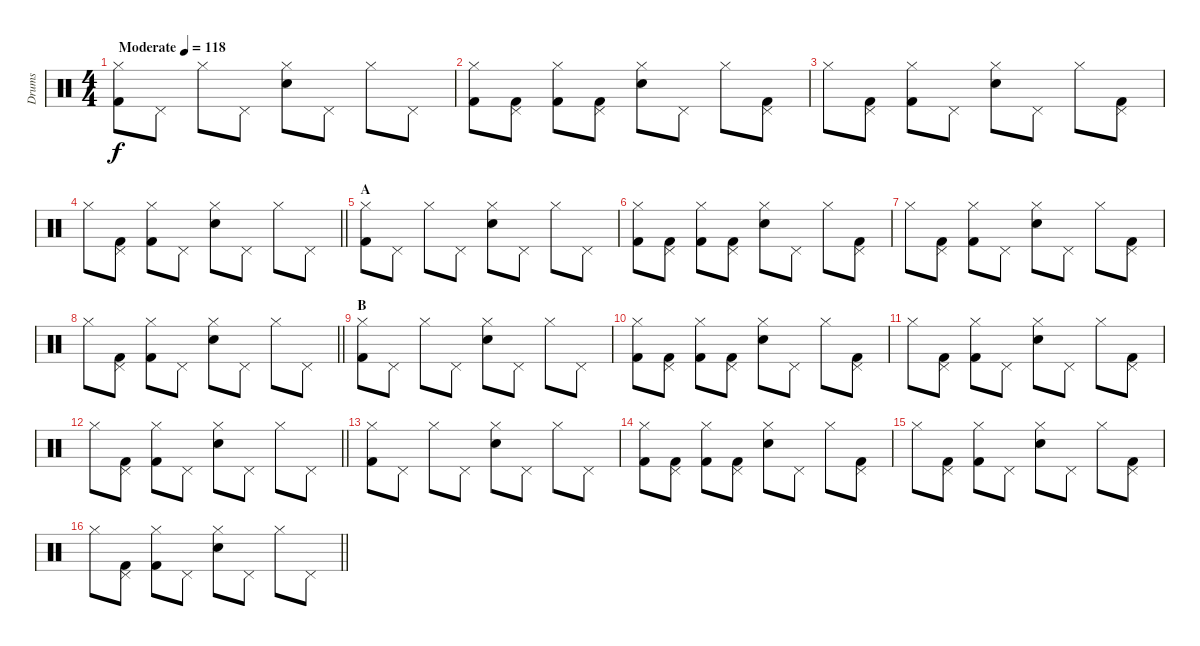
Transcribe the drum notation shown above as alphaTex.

\track ("Drums" "Drums") {instrument percussion}
\staff {score}
\articulation defaults
\ts (4 4)
\tempo (118 "Moderate")
\clef neutral
\ks c
("Hi-Hat (closed)" "Kick (hit) 2").8{dy f} "Pedal Hi-Hat (hit)".8 "Hi-Hat (closed)".8 "Pedal Hi-Hat (hit)".8 ("Hi-Hat (closed)" "Electric Snare (hit)").8 "Pedal Hi-Hat (hit)".8 "Hi-Hat (closed)".8 "Pedal Hi-Hat (hit)".8 |
("Hi-Hat (closed)" "Kick (hit) 2").8 ("Pedal Hi-Hat (hit)" "Kick (hit) 2").8 ("Hi-Hat (closed)" "Kick (hit) 2").8 ("Pedal Hi-Hat (hit)" "Kick (hit) 2").8 ("Hi-Hat (closed)" "Electric Snare (hit)").8 "Pedal Hi-Hat (hit)".8 "Hi-Hat (closed)".8 ("Pedal Hi-Hat (hit)" "Kick (hit) 2").8 |
"Hi-Hat (closed)".8 ("Pedal Hi-Hat (hit)" "Kick (hit) 2").8 ("Hi-Hat (closed)" "Kick (hit) 2").8 "Pedal Hi-Hat (hit)".8 ("Hi-Hat (closed)" "Electric Snare (hit)").8 "Pedal Hi-Hat (hit)".8 "Hi-Hat (closed)".8 ("Pedal Hi-Hat (hit)" "Kick (hit) 2").8 |
\barLineRight lightlight "Hi-Hat (closed)".8
("Pedal Hi-Hat (hit)" "Kick (hit) 2").8 ("Hi-Hat (closed)" "Kick (hit) 2").8 "Pedal Hi-Hat (hit)".8 ("Hi-Hat (closed)" "Electric Snare (hit)").8 "Pedal Hi-Hat (hit)".8 "Hi-Hat (closed)".8 "Pedal Hi-Hat (hit)".8 |
\section ("" "A")
("Hi-Hat (closed)" "Kick (hit) 2").8 "Pedal Hi-Hat (hit)".8 "Hi-Hat (closed)".8 "Pedal Hi-Hat (hit)".8 ("Hi-Hat (closed)" "Electric Snare (hit)").8 "Pedal Hi-Hat (hit)".8 "Hi-Hat (closed)".8 "Pedal Hi-Hat (hit)".8 |
("Hi-Hat (closed)" "Kick (hit) 2").8 ("Pedal Hi-Hat (hit)" "Kick (hit) 2").8 ("Hi-Hat (closed)" "Kick (hit) 2").8 ("Pedal Hi-Hat (hit)" "Kick (hit) 2").8 ("Hi-Hat (closed)" "Electric Snare (hit)").8 "Pedal Hi-Hat (hit)".8 "Hi-Hat (closed)".8 ("Pedal Hi-Hat (hit)" "Kick (hit) 2").8 |
"Hi-Hat (closed)".8 ("Pedal Hi-Hat (hit)" "Kick (hit) 2").8 ("Hi-Hat (closed)" "Kick (hit) 2").8 "Pedal Hi-Hat (hit)".8 ("Hi-Hat (closed)" "Electric Snare (hit)").8 "Pedal Hi-Hat (hit)".8 "Hi-Hat (closed)".8 ("Pedal Hi-Hat (hit)" "Kick (hit) 2").8 |
\barLineRight lightlight "Hi-Hat (closed)".8
("Pedal Hi-Hat (hit)" "Kick (hit) 2").8 ("Hi-Hat (closed)" "Kick (hit) 2").8 "Pedal Hi-Hat (hit)".8 ("Hi-Hat (closed)" "Electric Snare (hit)").8 "Pedal Hi-Hat (hit)".8 "Hi-Hat (closed)".8 "Pedal Hi-Hat (hit)".8 |
\section ("" "B")
("Hi-Hat (closed)" "Kick (hit) 2").8 "Pedal Hi-Hat (hit)".8 "Hi-Hat (closed)".8 "Pedal Hi-Hat (hit)".8 ("Hi-Hat (closed)" "Electric Snare (hit)").8 "Pedal Hi-Hat (hit)".8 "Hi-Hat (closed)".8 "Pedal Hi-Hat (hit)".8 |
("Hi-Hat (closed)" "Kick (hit) 2").8 ("Pedal Hi-Hat (hit)" "Kick (hit) 2").8 ("Hi-Hat (closed)" "Kick (hit) 2").8 ("Pedal Hi-Hat (hit)" "Kick (hit) 2").8 ("Hi-Hat (closed)" "Electric Snare (hit)").8 "Pedal Hi-Hat (hit)".8 "Hi-Hat (closed)".8 ("Pedal Hi-Hat (hit)" "Kick (hit) 2").8 |
"Hi-Hat (closed)".8 ("Pedal Hi-Hat (hit)" "Kick (hit) 2").8 ("Hi-Hat (closed)" "Kick (hit) 2").8 "Pedal Hi-Hat (hit)".8 ("Hi-Hat (closed)" "Electric Snare (hit)").8 "Pedal Hi-Hat (hit)".8 "Hi-Hat (closed)".8 ("Pedal Hi-Hat (hit)" "Kick (hit) 2").8 |
\barLineRight lightlight "Hi-Hat (closed)".8
("Pedal Hi-Hat (hit)" "Kick (hit) 2").8 ("Hi-Hat (closed)" "Kick (hit) 2").8 "Pedal Hi-Hat (hit)".8 ("Hi-Hat (closed)" "Electric Snare (hit)").8 "Pedal Hi-Hat (hit)".8 "Hi-Hat (closed)".8 "Pedal Hi-Hat (hit)".8 |
("Hi-Hat (closed)" "Kick (hit) 2").8 "Pedal Hi-Hat (hit)".8 "Hi-Hat (closed)".8 "Pedal Hi-Hat (hit)".8 ("Hi-Hat (closed)" "Electric Snare (hit)").8 "Pedal Hi-Hat (hit)".8 "Hi-Hat (closed)".8 "Pedal Hi-Hat (hit)".8 |
("Hi-Hat (closed)" "Kick (hit) 2").8 ("Pedal Hi-Hat (hit)" "Kick (hit) 2").8 ("Hi-Hat (closed)" "Kick (hit) 2").8 ("Pedal Hi-Hat (hit)" "Kick (hit) 2").8 ("Hi-Hat (closed)" "Electric Snare (hit)").8 "Pedal Hi-Hat (hit)".8 "Hi-Hat (closed)".8 ("Pedal Hi-Hat (hit)" "Kick (hit) 2").8 |
"Hi-Hat (closed)".8 ("Pedal Hi-Hat (hit)" "Kick (hit) 2").8 ("Hi-Hat (closed)" "Kick (hit) 2").8 "Pedal Hi-Hat (hit)".8 ("Hi-Hat (closed)" "Electric Snare (hit)").8 "Pedal Hi-Hat (hit)".8 "Hi-Hat (closed)".8 ("Pedal Hi-Hat (hit)" "Kick (hit) 2").8 |
\barLineRight lightlight "Hi-Hat (closed)".8
("Pedal Hi-Hat (hit)" "Kick (hit) 2").8 ("Hi-Hat (closed)" "Kick (hit) 2").8 "Pedal Hi-Hat (hit)".8 ("Hi-Hat (closed)" "Electric Snare (hit)").8 "Pedal Hi-Hat (hit)".8 "Hi-Hat (closed)".8 "Pedal Hi-Hat (hit)".8
